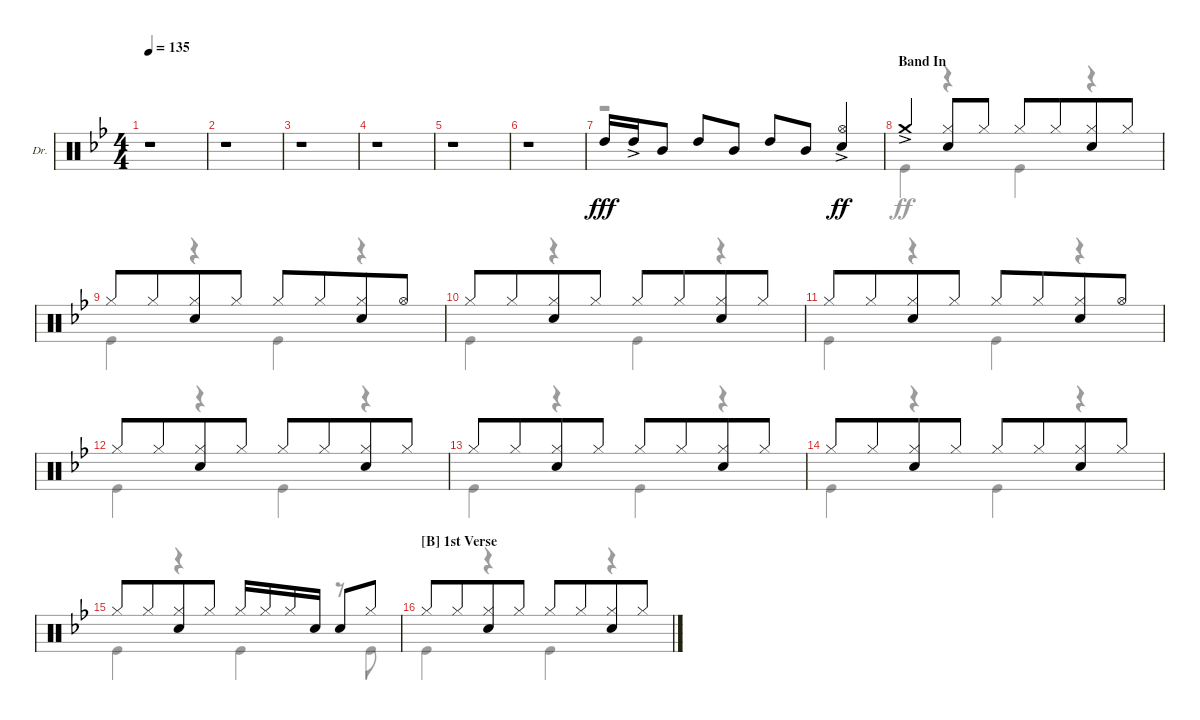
\defaultSystemsLayout 4
\bracketExtendMode groupsimilarinstruments
\firstSystemTrackNameOrientation horizontal
\otherSystemsTrackNameOrientation horizontal
\track ("Drums" "Dr.") {instrument percussion}
\staff {score}
\articulation defaults
\voice
\ts (4 4)
\tempo 135
\clef neutral
\ks bb
r.1{dy f} |
r.1 |
r.1 |
r.1 |
r.1 |
r.1 |
"High Tom (hit)".16{dy fff} "High Tom (hit)"{ac}.16 "Mid Tom (hit)".8 "High Tom (hit)".8 "Mid Tom (hit)".8 "High Tom (hit)".8 "Mid Tom (hit)".8 ("Snare (hit) 2"{ac} "Hi-Hat (open)").4{dy ff} |
\section ("" "Band In")
"Crash medium (hit)"{ac}.4{beam merge} ("Hi-Hat (closed)" "Snare (hit) 2").8{beam merge} "Hi-Hat (closed)".8 "Hi-Hat (closed)".8{beam merge} "Hi-Hat (closed)".8{beam merge} ("Hi-Hat (closed)" "Snare (hit) 2").8{beam merge} "Hi-Hat (closed)".8 |
"Hi-Hat (closed)".8{beam merge} "Hi-Hat (closed)".8{beam merge} ("Hi-Hat (closed)" "Snare (hit) 2").8{beam merge} "Hi-Hat (closed)".8 "Hi-Hat (closed)".8{beam merge} "Hi-Hat (closed)".8{beam merge} ("Hi-Hat (closed)" "Snare (hit) 2").8{beam merge} "Hi-Hat (open)".8 |
"Hi-Hat (closed)".8{beam merge} "Hi-Hat (closed)".8{beam merge} ("Hi-Hat (closed)" "Snare (hit) 2").8{beam merge} "Hi-Hat (closed)".8 "Hi-Hat (closed)".8{beam merge} "Hi-Hat (closed)".8{beam merge} ("Hi-Hat (closed)" "Snare (hit) 2").8{beam merge} "Hi-Hat (closed)".8 |
"Hi-Hat (closed)".8{beam merge} "Hi-Hat (closed)".8{beam merge} ("Hi-Hat (closed)" "Snare (hit) 2").8{beam merge} "Hi-Hat (closed)".8 "Hi-Hat (closed)".8{beam merge} "Hi-Hat (closed)".8{beam merge} ("Hi-Hat (closed)" "Snare (hit) 2").8{beam merge} "Hi-Hat (open)".8 |
"Hi-Hat (closed)".8{beam merge} "Hi-Hat (closed)".8{beam merge} ("Hi-Hat (closed)" "Snare (hit) 2").8{beam merge} "Hi-Hat (closed)".8 "Hi-Hat (closed)".8{beam merge} "Hi-Hat (closed)".8{beam merge} ("Hi-Hat (closed)" "Snare (hit) 2").8{beam merge} "Hi-Hat (closed)".8 |
"Hi-Hat (closed)".8{beam merge} "Hi-Hat (closed)".8{beam merge} ("Hi-Hat (closed)" "Snare (hit) 2").8{beam merge} "Hi-Hat (closed)".8 "Hi-Hat (closed)".8{beam merge} "Hi-Hat (closed)".8{beam merge} ("Hi-Hat (closed)" "Snare (hit) 2").8{beam merge} "Hi-Hat (closed)".8 |
"Hi-Hat (closed)".8{beam merge} "Hi-Hat (closed)".8{beam merge} ("Hi-Hat (closed)" "Snare (hit) 2").8{beam merge} "Hi-Hat (closed)".8 "Hi-Hat (closed)".8{beam merge} "Hi-Hat (closed)".8{beam merge} ("Hi-Hat (closed)" "Snare (hit) 2").8{beam merge} "Hi-Hat (closed)".8 |
"Hi-Hat (closed)".8{beam merge} "Hi-Hat (closed)".8{beam merge} ("Hi-Hat (closed)" "Snare (hit) 2").8{beam merge} "Hi-Hat (closed)".8 "Hi-Hat (closed)".16{beam merge} "Hi-Hat (closed)".16{beam merge} "Hi-Hat (closed)".16{beam merge} "Snare (hit) 2".16 "Snare (hit) 2".8 "Hi-Hat (closed)".8 |
\section ("B" "1st Verse")
"Hi-Hat (closed)".8{beam merge} "Hi-Hat (closed)".8{beam merge} ("Hi-Hat (closed)" "Snare (hit) 2").8{beam merge} "Hi-Hat (closed)".8 "Hi-Hat (closed)".8{beam merge} "Hi-Hat (closed)".8{beam merge} ("Hi-Hat (closed)" "Snare (hit) 2").8{beam merge} "Hi-Hat (closed)".8
\voice
\clef neutral
\ottava regular
\simile none
\ks bb
|
|
|
|
|
|
r.1 |
"Kick (hit)".4 r.4 "Kick (hit)".4 r.4 |
"Kick (hit)".4 r.4 "Kick (hit)".4 r.4 |
"Kick (hit)".4 r.4 "Kick (hit)".4 r.4 |
"Kick (hit)".4 r.4 "Kick (hit)".4 r.4 |
"Kick (hit)".4 r.4 "Kick (hit)".4 r.4 |
"Kick (hit)".4 r.4 "Kick (hit)".4 r.4 |
"Kick (hit)".4 r.4 "Kick (hit)".4 r.4 |
"Kick (hit)".4 r.4 "Kick (hit)".4 r.8 "Kick (hit)".8 |
"Kick (hit)".4 r.4 "Kick (hit)".4 r.4
